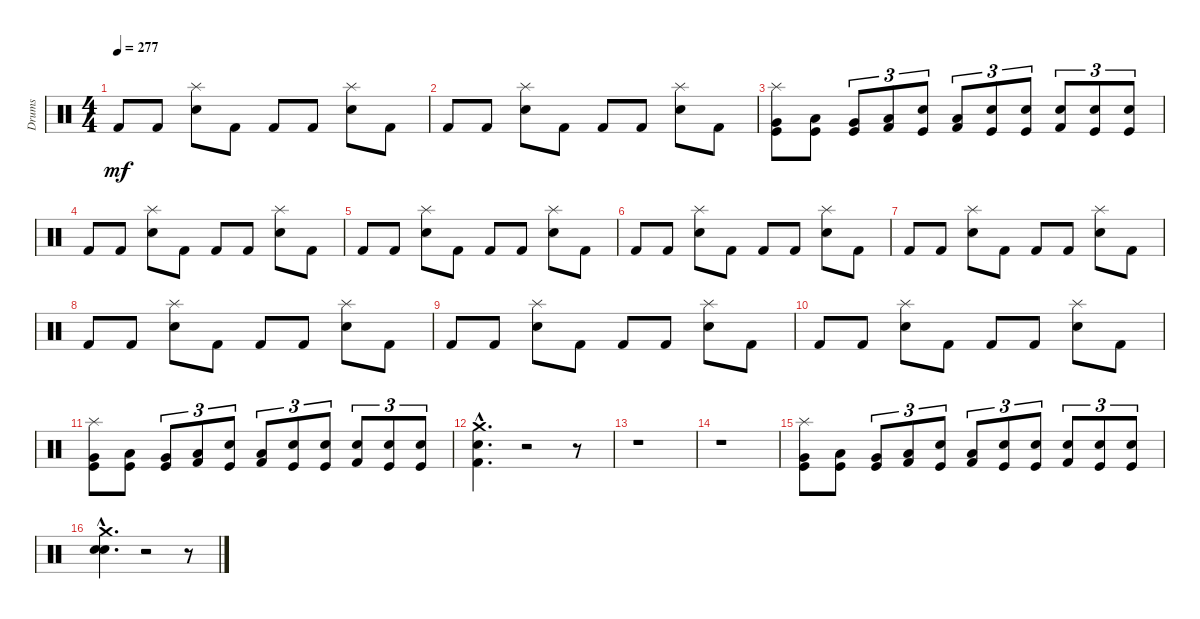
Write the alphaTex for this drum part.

\track ("Drums" "Drums") {instrument percussion}
\staff {score}
\articulation defaults
\ts (4 4)
\tempo 277
\clef neutral
\ks c "Kick (hit) 2".8{dy mf} "Kick (hit) 2".8
("Splash (hit)" "Electric Snare (hit)").8 "Kick (hit) 2".8 "Kick (hit) 2".8 "Kick (hit) 2".8 ("Splash (hit)" "Electric Snare (hit)").8 "Kick (hit) 2".8 |
"Kick (hit) 2".8 "Kick (hit) 2".8 ("Electric Snare (hit)" "Splash (hit)").8 "Kick (hit) 2".8 "Kick (hit) 2".8 "Kick (hit) 2".8 ("Splash (hit)" "Electric Snare (hit)").8 "Kick (hit) 2".8 |
("Kick (hit)" "Very Low Tom (hit)" "Splash (hit)").8 ("Kick (hit)" "Low Floor Tom (hit)").8 ("Kick (hit)" "Very Low Tom (hit)").8{tu (3 2)} ("Low Floor Tom (hit)" "Kick (hit) 2").8{tu (3 2)} ("Electric Snare (hit)" "Kick (hit)").8{tu (3 2)} ("Low Floor Tom (hit)" "Kick (hit) 2").8{tu (3 2)} ("Kick (hit)" "Electric Snare (hit)").8{tu (3 2)} ("Kick (hit)" "Snare (hit) 2").8{tu (3 2)} ("Electric Snare (hit)" "Kick (hit) 2").8{tu (3 2)} ("Kick (hit)" "Snare (hit) 2").8{tu (3 2)} ("Electric Snare (hit)" "Kick (hit)").8{tu (3 2)} |
"Kick (hit) 2".8 "Kick (hit) 2".8 ("Splash (hit)" "Electric Snare (hit)").8 "Kick (hit) 2".8 "Kick (hit) 2".8 "Kick (hit) 2".8 ("Electric Snare (hit)" "Splash (hit)").8 "Kick (hit) 2".8 |
"Kick (hit) 2".8 "Kick (hit) 2".8 ("Splash (hit)" "Electric Snare (hit)").8 "Kick (hit) 2".8 "Kick (hit) 2".8 "Kick (hit) 2".8 ("Splash (hit)" "Electric Snare (hit)").8 "Kick (hit) 2".8 |
"Kick (hit) 2".8 "Kick (hit) 2".8 ("Electric Snare (hit)" "Splash (hit)").8 "Kick (hit) 2".8 "Kick (hit) 2".8 "Kick (hit) 2".8 ("Electric Snare (hit)" "Splash (hit)").8 "Kick (hit) 2".8 |
"Kick (hit) 2".8 "Kick (hit) 2".8 ("Splash (hit)" "Electric Snare (hit)").8 "Kick (hit) 2".8 "Kick (hit) 2".8 "Kick (hit) 2".8 ("Splash (hit)" "Electric Snare (hit)").8 "Kick (hit) 2".8 |
"Kick (hit) 2".8 "Kick (hit) 2".8 ("Splash (hit)" "Electric Snare (hit)").8 "Kick (hit) 2".8 "Kick (hit) 2".8 "Kick (hit) 2".8 ("Splash (hit)" "Electric Snare (hit)").8 "Kick (hit) 2".8 |
"Kick (hit) 2".8 "Kick (hit) 2".8 ("Splash (hit)" "Electric Snare (hit)").8 "Kick (hit) 2".8 "Kick (hit) 2".8 "Kick (hit) 2".8 ("Splash (hit)" "Electric Snare (hit)").8 "Kick (hit) 2".8 |
"Kick (hit) 2".8 "Kick (hit) 2".8 ("Electric Snare (hit)" "Splash (hit)").8 "Kick (hit) 2".8 "Kick (hit) 2".8 "Kick (hit) 2".8 ("Electric Snare (hit)" "Splash (hit)").8 "Kick (hit) 2".8 |
("Very Low Tom (hit)" "Kick (hit)" "Splash (hit)").8 ("Low Floor Tom (hit)" "Kick (hit)").8 ("Very Low Tom (hit)" "Kick (hit)").8{tu (3 2)} ("Low Floor Tom (hit)" "Kick (hit) 2").8{tu (3 2)} ("Electric Snare (hit)" "Kick (hit)").8{tu (3 2)} ("Kick (hit) 2" "Low Floor Tom (hit)").8{tu (3 2)} ("Kick (hit)" "Electric Snare (hit)").8{tu (3 2)} ("Kick (hit)" "Snare (hit) 2").8{tu (3 2)} ("Kick (hit) 2" "Electric Snare (hit)").8{tu (3 2)} ("Kick (hit)" "Snare (hit) 2").8{tu (3 2)} ("Kick (hit)" "Electric Snare (hit)").8{tu (3 2)} |
("Crash medium (hit)"{hac} "Snare (hit) 2"{hac} "Kick (hit) 2"{hac}).4{d} r.2 r.8 |
r.1 |
r.1 |
("Kick (hit)" "Splash (hit)" "Very Low Tom (hit)").8 ("Kick (hit)" "Low Floor Tom (hit)").8 ("Kick (hit)" "Very Low Tom (hit)").8{tu (3 2)} ("Kick (hit) 2" "Low Floor Tom (hit)").8{tu (3 2)} ("Kick (hit)" "Electric Snare (hit)").8{tu (3 2)} ("Kick (hit) 2" "Low Floor Tom (hit)").8{tu (3 2)} ("Kick (hit)" "Electric Snare (hit)").8{tu (3 2)} ("Snare (hit) 2" "Kick (hit)").8{tu (3 2)} ("Electric Snare (hit)" "Kick (hit) 2").8{tu (3 2)} ("Kick (hit)" "Snare (hit) 2").8{tu (3 2)} ("Kick (hit)" "Electric Snare (hit)").8{tu (3 2)} |
("Crash medium (hit)"{hac} "Electric Snare (hit)"{hac} "Snare (hit) 2"{hac}).4{d} r.2 r.8
